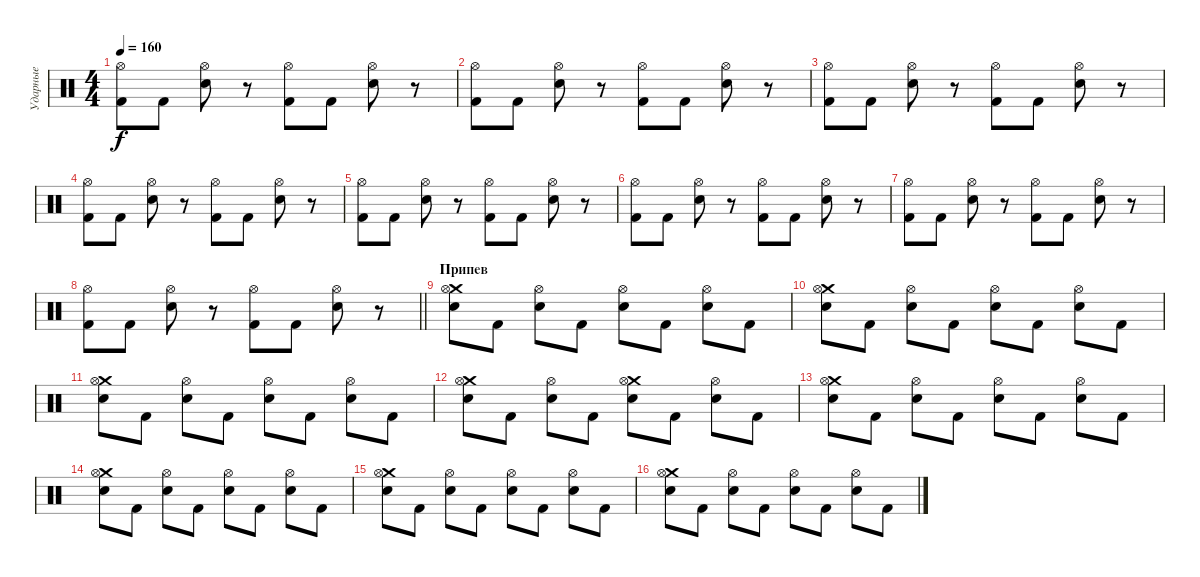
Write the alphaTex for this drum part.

\track ("Ударные" "Ударные") {instrument percussion}
\staff {score}
\articulation defaults
\ts (4 4)
\tempo 160
\clef neutral
\ks c
("Hi-Hat (open)" "Kick (hit) 2").8{dy f} "Kick (hit) 2".8 ("Hi-Hat (open)" "Snare (hit) 2").8 r.8 ("Hi-Hat (open)" "Kick (hit) 2").8 "Kick (hit) 2".8 ("Hi-Hat (open)" "Snare (hit) 2").8 r.8 |
("Hi-Hat (open)" "Kick (hit) 2").8 "Kick (hit) 2".8 ("Hi-Hat (open)" "Snare (hit) 2").8 r.8 ("Hi-Hat (open)" "Kick (hit) 2").8 "Kick (hit) 2".8 ("Hi-Hat (open)" "Snare (hit) 2").8 r.8 |
("Hi-Hat (open)" "Kick (hit) 2").8 "Kick (hit) 2".8 ("Hi-Hat (open)" "Snare (hit) 2").8 r.8 ("Hi-Hat (open)" "Kick (hit) 2").8 "Kick (hit) 2".8 ("Hi-Hat (open)" "Snare (hit) 2").8 r.8 |
("Hi-Hat (open)" "Kick (hit) 2").8 "Kick (hit) 2".8 ("Hi-Hat (open)" "Snare (hit) 2").8 r.8 ("Hi-Hat (open)" "Kick (hit) 2").8 "Kick (hit) 2".8 ("Hi-Hat (open)" "Snare (hit) 2").8 r.8 |
("Hi-Hat (open)" "Kick (hit) 2").8 "Kick (hit) 2".8 ("Hi-Hat (open)" "Snare (hit) 2").8 r.8 ("Hi-Hat (open)" "Kick (hit) 2").8 "Kick (hit) 2".8 ("Hi-Hat (open)" "Snare (hit) 2").8 r.8 |
("Hi-Hat (open)" "Kick (hit) 2").8 "Kick (hit) 2".8 ("Hi-Hat (open)" "Snare (hit) 2").8 r.8 ("Hi-Hat (open)" "Kick (hit) 2").8 "Kick (hit) 2".8 ("Hi-Hat (open)" "Snare (hit) 2").8 r.8 |
("Hi-Hat (open)" "Kick (hit) 2").8 "Kick (hit) 2".8 ("Hi-Hat (open)" "Snare (hit) 2").8 r.8 ("Hi-Hat (open)" "Kick (hit) 2").8 "Kick (hit) 2".8 ("Hi-Hat (open)" "Snare (hit) 2").8 r.8 |
\barLineRight lightlight
("Hi-Hat (open)" "Kick (hit) 2").8 "Kick (hit) 2".8 ("Hi-Hat (open)" "Snare (hit) 2").8 r.8 ("Hi-Hat (open)" "Kick (hit) 2").8 "Kick (hit) 2".8 ("Hi-Hat (open)" "Snare (hit) 2").8 r.8 |
\section ("" "Припев")
("Crash medium (hit)" "Hi-Hat (open)" "Snare (hit) 2").8 "Kick (hit) 2".8 ("Hi-Hat (open)" "Snare (hit) 2").8 "Kick (hit) 2".8 ("Hi-Hat (open)" "Snare (hit) 2").8 "Kick (hit) 2".8 ("Hi-Hat (open)" "Snare (hit) 2").8 "Kick (hit) 2".8 |
("Crash medium (hit)" "Hi-Hat (open)" "Snare (hit) 2").8 "Kick (hit) 2".8 ("Hi-Hat (open)" "Snare (hit) 2").8 "Kick (hit) 2".8 ("Hi-Hat (open)" "Snare (hit) 2").8 "Kick (hit) 2".8 ("Hi-Hat (open)" "Snare (hit) 2").8 "Kick (hit) 2".8 |
("Crash medium (hit)" "Hi-Hat (open)" "Snare (hit) 2").8 "Kick (hit) 2".8 ("Hi-Hat (open)" "Snare (hit) 2").8 "Kick (hit) 2".8 ("Hi-Hat (open)" "Snare (hit) 2").8 "Kick (hit) 2".8 ("Hi-Hat (open)" "Snare (hit) 2").8 "Kick (hit) 2".8 |
("Crash medium (hit)" "Hi-Hat (open)" "Snare (hit) 2").8 "Kick (hit) 2".8 ("Hi-Hat (open)" "Snare (hit) 2").8 "Kick (hit) 2".8 ("Crash medium (hit)" "Hi-Hat (open)" "Snare (hit) 2").8 "Kick (hit) 2".8 ("Hi-Hat (open)" "Snare (hit) 2").8 "Kick (hit) 2".8 |
("Crash medium (hit)" "Hi-Hat (open)" "Snare (hit) 2").8 "Kick (hit) 2".8 ("Hi-Hat (open)" "Snare (hit) 2").8 "Kick (hit) 2".8 ("Hi-Hat (open)" "Snare (hit) 2").8 "Kick (hit) 2".8 ("Hi-Hat (open)" "Snare (hit) 2").8 "Kick (hit) 2".8 |
("Crash medium (hit)" "Hi-Hat (open)" "Snare (hit) 2").8 "Kick (hit) 2".8 ("Hi-Hat (open)" "Snare (hit) 2").8 "Kick (hit) 2".8 ("Hi-Hat (open)" "Snare (hit) 2").8 "Kick (hit) 2".8 ("Hi-Hat (open)" "Snare (hit) 2").8 "Kick (hit) 2".8 |
("Crash medium (hit)" "Hi-Hat (open)" "Snare (hit) 2").8 "Kick (hit) 2".8 ("Hi-Hat (open)" "Snare (hit) 2").8 "Kick (hit) 2".8 ("Hi-Hat (open)" "Snare (hit) 2").8 "Kick (hit) 2".8 ("Hi-Hat (open)" "Snare (hit) 2").8 "Kick (hit) 2".8 |
("Crash medium (hit)" "Hi-Hat (open)" "Snare (hit) 2").8 "Kick (hit) 2".8 ("Hi-Hat (open)" "Snare (hit) 2").8 "Kick (hit) 2".8 ("Hi-Hat (open)" "Snare (hit) 2").8 "Kick (hit) 2".8 ("Hi-Hat (open)" "Snare (hit) 2").8 "Kick (hit) 2".8
